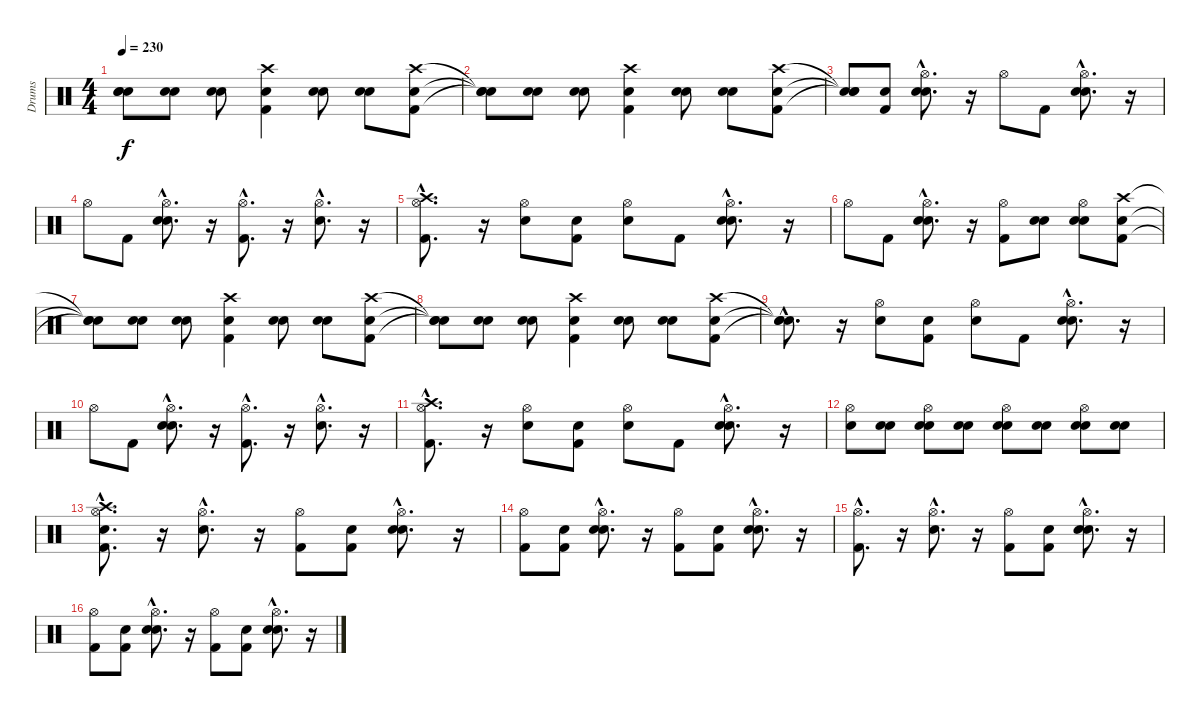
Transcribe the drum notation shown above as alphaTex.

\track ("Drums" "Drums") {instrument percussion}
\staff {score}
\articulation defaults
\ts (4 4)
\tempo 230
\clef neutral
\ks c
("Snare (hit)"{t} "Snare (hit)"{t} "Snare (hit)"{t}).8{dy f} ("Snare (hit)" "Snare (hit) 2").8 ("Snare (hit)" "Snare (hit) 2").8 ("Snare (hit)" "Kick (hit) 2" "Crash high (hit)").4 ("Snare (hit)" "Snare (hit) 2").8 ("Snare (hit)" "Snare (hit) 2").8 ("Snare (hit)" "Kick (hit) 2" "Crash high (hit)").8 |
("Snare (hit)"{t} "Snare (hit)"{t} "Snare (hit)"{t}).8 ("Snare (hit)" "Snare (hit) 2").8 ("Snare (hit)" "Snare (hit) 2").8 ("Snare (hit)" "Kick (hit) 2" "Crash high (hit)").4 ("Snare (hit)" "Snare (hit) 2").8 ("Snare (hit)" "Snare (hit) 2").8 ("Snare (hit)" "Kick (hit) 2" "Crash high (hit)").8 |
("Snare (hit)"{t} "Snare (hit)"{t} "Snare (hit)"{t}).8 ("Snare (hit)" "Kick (hit) 2").8 ("Snare (hit)"{hac} "Snare (hit) 2"{hac} "Hi-Hat (open)"{hac}).8{d} r.16 "Hi-Hat (open)".8 "Kick (hit) 2".8 ("Snare (hit)"{hac} "Snare (hit) 2"{hac} "Hi-Hat (open)"{hac}).8{d} r.16 |
"Hi-Hat (open)".8 "Kick (hit) 2".8 ("Snare (hit)"{hac} "Snare (hit) 2"{hac} "Hi-Hat (open)"{hac}).8{d} r.16 ("Kick (hit) 2"{hac} "Hi-Hat (open)"{hac}).8{d} r.16 ("Snare (hit) 2"{hac} "Hi-Hat (open)"{hac}).8{d} r.16 |
("Kick (hit) 2"{hac} "Hi-Hat (open)"{hac} "Crash high (hit)"{hac}).8{d} r.16 ("Snare (hit) 2" "Hi-Hat (open)").8 ("Snare (hit)" "Kick (hit) 2").8 ("Snare (hit)" "Hi-Hat (open)").8 "Kick (hit) 2".8 ("Snare (hit)"{hac} "Snare (hit) 2"{hac} "Hi-Hat (open)"{hac}).8{d} r.16 |
"Hi-Hat (open)".8 "Kick (hit) 2".8 ("Snare (hit)"{hac} "Snare (hit) 2"{hac} "Hi-Hat (open)"{hac}).8{d} r.16 ("Kick (hit) 2" "Hi-Hat (open)").8 ("Snare (hit)" "Snare (hit) 2").8 ("Snare (hit)" "Snare (hit) 2" "Hi-Hat (open)").8 ("Snare (hit)" "Kick (hit) 2" "Crash high (hit)").8 |
("Snare (hit)"{t} "Snare (hit)"{t} "Snare (hit)"{t}).8 ("Snare (hit)" "Snare (hit) 2").8 ("Snare (hit)" "Snare (hit) 2").8 ("Snare (hit)" "Kick (hit) 2" "Crash high (hit)").4 ("Snare (hit)" "Snare (hit) 2").8 ("Snare (hit)" "Snare (hit) 2").8 ("Snare (hit)" "Kick (hit) 2" "Crash high (hit)").8 |
("Snare (hit)"{t} "Snare (hit)"{t} "Snare (hit)"{t}).8 ("Snare (hit)" "Snare (hit) 2").8 ("Snare (hit)" "Snare (hit) 2").8 ("Snare (hit)" "Kick (hit) 2" "Crash high (hit)").4 ("Snare (hit)" "Snare (hit) 2").8 ("Snare (hit)" "Snare (hit) 2").8 ("Snare (hit)" "Kick (hit) 2" "Crash high (hit)").8 |
("Snare (hit)"{hac t} "Snare (hit)"{hac t} "Snare (hit)"{hac t}).8{d} r.16 ("Snare (hit) 2" "Hi-Hat (open)").8 ("Snare (hit)" "Kick (hit) 2").8 ("Snare (hit)" "Hi-Hat (open)").8 "Kick (hit) 2".8 ("Snare (hit)"{hac} "Snare (hit) 2"{hac} "Hi-Hat (open)"{hac}).8{d} r.16 |
"Hi-Hat (open)".8 "Kick (hit) 2".8 ("Snare (hit)"{hac} "Snare (hit) 2"{hac} "Hi-Hat (open)"{hac}).8{d} r.16 ("Kick (hit) 2"{hac} "Hi-Hat (open)"{hac}).8{d} r.16 ("Snare (hit) 2"{hac} "Hi-Hat (open)"{hac}).8{d} r.16 |
("Kick (hit) 2"{hac} "Hi-Hat (open)"{hac} "Crash high (hit)"{hac}).8{d} r.16 ("Snare (hit) 2" "Hi-Hat (open)").8 ("Snare (hit)" "Kick (hit) 2").8 ("Snare (hit)" "Hi-Hat (open)").8 "Kick (hit) 2".8 ("Snare (hit)"{hac} "Snare (hit) 2"{hac} "Hi-Hat (open)"{hac}).8{d} r.16 |
("Snare (hit) 2" "Hi-Hat (open)").8 ("Snare (hit)" "Snare (hit) 2").8 ("Snare (hit)" "Snare (hit) 2" "Hi-Hat (open)").8 ("Snare (hit)" "Snare (hit) 2").8 ("Snare (hit)" "Snare (hit) 2" "Hi-Hat (open)").8 ("Snare (hit)" "Snare (hit) 2").8 ("Snare (hit)" "Snare (hit) 2" "Hi-Hat (open)").8 ("Snare (hit)" "Snare (hit) 2").8 |
("Snare (hit)"{hac} "Kick (hit) 2"{hac} "Hi-Hat (open)"{hac} "Crash high (hit)"{hac}).8{d} r.16 ("Snare (hit) 2"{hac} "Hi-Hat (open)"{hac}).8{d} r.16 ("Kick (hit) 2" "Hi-Hat (open)").8 ("Snare (hit)" "Kick (hit) 2").8 ("Snare (hit)"{hac} "Snare (hit) 2"{hac} "Hi-Hat (open)"{hac}).8{d} r.16 |
("Kick (hit) 2" "Hi-Hat (open)").8 ("Snare (hit)" "Kick (hit) 2").8 ("Snare (hit)"{hac} "Snare (hit) 2"{hac} "Hi-Hat (open)"{hac}).8{d} r.16 ("Kick (hit) 2" "Hi-Hat (open)").8 ("Snare (hit)" "Kick (hit) 2").8 ("Snare (hit)"{hac} "Snare (hit) 2"{hac} "Hi-Hat (open)"{hac}).8{d} r.16 |
("Kick (hit) 2"{hac} "Hi-Hat (open)"{hac}).8{d} r.16 ("Snare (hit) 2"{hac} "Hi-Hat (open)"{hac}).8{d} r.16 ("Kick (hit) 2" "Hi-Hat (open)").8 ("Snare (hit)" "Kick (hit) 2").8 ("Snare (hit)"{hac} "Snare (hit) 2"{hac} "Hi-Hat (open)"{hac}).8{d} r.16 |
("Kick (hit) 2" "Hi-Hat (open)").8 ("Snare (hit)" "Kick (hit) 2").8 ("Snare (hit)"{hac} "Snare (hit) 2"{hac} "Hi-Hat (open)"{hac}).8{d} r.16 ("Kick (hit) 2" "Hi-Hat (open)").8 ("Snare (hit)" "Kick (hit) 2").8 ("Snare (hit)"{hac} "Snare (hit) 2"{hac} "Hi-Hat (open)"{hac}).8{d} r.16
